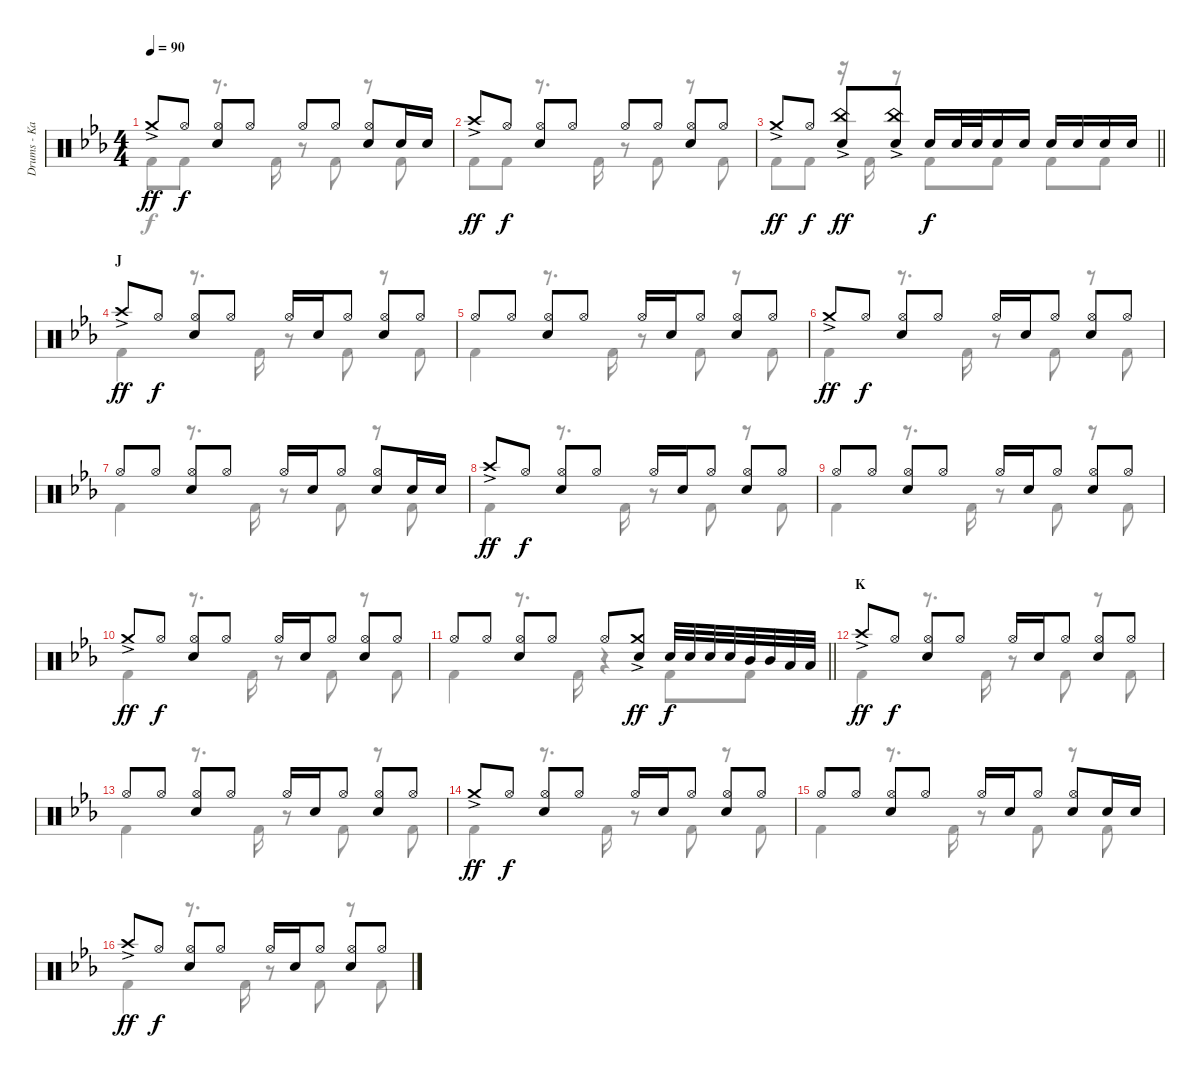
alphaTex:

\track ("Drums - Kai" "Drums - Ka") {instrument percussion}
\staff {score}
\articulation defaults
\voice
\ts (4 4)
\tempo 90
\clef neutral
\ks eb "Crash medium (hit)"{ac}.8{dy ff} "Hi-Hat (open)".8{dy f}
("Hi-Hat (open)" "Snare (hit) 2").8 "Hi-Hat (open)".8 "Hi-Hat (open)".8 "Hi-Hat (open)".8 ("Hi-Hat (open)" "Snare (hit) 2").8 "Snare (hit) 2".16 "Snare (hit) 2".16 |
"Crash high (hit)"{ac}.8{dy ff} "Hi-Hat (open)".8{dy f} ("Hi-Hat (open)" "Snare (hit) 2").8 "Hi-Hat (open)".8 "Hi-Hat (open)".8 "Hi-Hat (open)".8 ("Hi-Hat (open)" "Snare (hit) 2").8 "Hi-Hat (open)".8 |
\barLineRight lightlight "Crash medium (hit)"{ac}.8{dy ff} "Hi-Hat (open)".8{dy f}
("China (hit)"{ac} "Snare (hit) 2").8{dy ff} ("China (hit)"{ac} "Snare (hit) 2").8 "Snare (hit) 2".16{dy f} "Snare (hit) 2".32 "Snare (hit) 2".32 "Snare (hit) 2".16 "Snare (hit) 2".16 "Snare (hit) 2".16 "Snare (hit) 2".16 "Snare (hit) 2".16 "Snare (hit) 2".16 |
\section ("" "J")
"Crash high (hit)"{ac}.8{dy ff} "Hi-Hat (open)".8{dy f} ("Hi-Hat (open)" "Snare (hit) 2").8 "Hi-Hat (open)".8 "Hi-Hat (open)".16 "Snare (hit) 2".16 "Hi-Hat (open)".8 ("Hi-Hat (open)" "Snare (hit) 2").8 "Hi-Hat (open)".8 |
"Hi-Hat (open)".8 "Hi-Hat (open)".8 ("Hi-Hat (open)" "Snare (hit) 2").8 "Hi-Hat (open)".8 "Hi-Hat (open)".16 "Snare (hit) 2".16 "Hi-Hat (open)".8 ("Hi-Hat (open)" "Snare (hit) 2").8 "Hi-Hat (open)".8 |
"Crash medium (hit)"{ac}.8{dy ff} "Hi-Hat (open)".8{dy f} ("Hi-Hat (open)" "Snare (hit) 2").8 "Hi-Hat (open)".8 "Hi-Hat (open)".16 "Snare (hit) 2".16 "Hi-Hat (open)".8 ("Hi-Hat (open)" "Snare (hit) 2").8 "Hi-Hat (open)".8 |
"Hi-Hat (open)".8 "Hi-Hat (open)".8 ("Hi-Hat (open)" "Snare (hit) 2").8 "Hi-Hat (open)".8 "Hi-Hat (open)".16 "Snare (hit) 2".16 "Hi-Hat (open)".8 ("Hi-Hat (open)" "Snare (hit) 2").8 "Snare (hit) 2".16 "Snare (hit) 2".16 |
"Crash high (hit)"{ac}.8{dy ff} "Hi-Hat (open)".8{dy f} ("Hi-Hat (open)" "Snare (hit) 2").8 "Hi-Hat (open)".8 "Hi-Hat (open)".16 "Snare (hit) 2".16 "Hi-Hat (open)".8 ("Hi-Hat (open)" "Snare (hit) 2").8 "Hi-Hat (open)".8 |
"Hi-Hat (open)".8 "Hi-Hat (open)".8 ("Hi-Hat (open)" "Snare (hit) 2").8 "Hi-Hat (open)".8 "Hi-Hat (open)".16 "Snare (hit) 2".16 "Hi-Hat (open)".8 ("Hi-Hat (open)" "Snare (hit) 2").8 "Hi-Hat (open)".8 |
"Crash medium (hit)"{ac}.8{dy ff} "Hi-Hat (open)".8{dy f} ("Hi-Hat (open)" "Snare (hit) 2").8 "Hi-Hat (open)".8 "Hi-Hat (open)".16 "Snare (hit) 2".16 "Hi-Hat (open)".8 ("Hi-Hat (open)" "Snare (hit) 2").8 "Hi-Hat (open)".8 |
\barLineRight lightlight "Hi-Hat (open)".8 "Hi-Hat (open)".8
("Hi-Hat (open)" "Snare (hit) 2").8 "Hi-Hat (open)".8 "Hi-Hat (open)".8 ("Crash medium (hit)"{ac} "Snare (hit) 2").8{dy ff} "Snare (hit) 2".32{dy f} "Snare (hit) 2".32 "Snare (hit) 2".32 "Snare (hit) 2".32 "Mid Tom (hit)".32 "Mid Tom (hit)".32 "Low Tom (hit)".32 "Low Tom (hit)".32 |
\section ("" "K")
"Crash high (hit)"{ac}.8{dy ff} "Hi-Hat (open)".8{dy f} ("Hi-Hat (open)" "Snare (hit) 2").8 "Hi-Hat (open)".8 "Hi-Hat (open)".16 "Snare (hit) 2".16 "Hi-Hat (open)".8 ("Hi-Hat (open)" "Snare (hit) 2").8 "Hi-Hat (open)".8 |
"Hi-Hat (open)".8 "Hi-Hat (open)".8 ("Hi-Hat (open)" "Snare (hit) 2").8 "Hi-Hat (open)".8 "Hi-Hat (open)".16 "Snare (hit) 2".16 "Hi-Hat (open)".8 ("Hi-Hat (open)" "Snare (hit) 2").8 "Hi-Hat (open)".8 |
"Crash medium (hit)"{ac}.8{dy ff} "Hi-Hat (open)".8{dy f} ("Hi-Hat (open)" "Snare (hit) 2").8 "Hi-Hat (open)".8 "Hi-Hat (open)".16 "Snare (hit) 2".16 "Hi-Hat (open)".8 ("Hi-Hat (open)" "Snare (hit) 2").8 "Hi-Hat (open)".8 |
"Hi-Hat (open)".8 "Hi-Hat (open)".8 ("Hi-Hat (open)" "Snare (hit) 2").8 "Hi-Hat (open)".8 "Hi-Hat (open)".16 "Snare (hit) 2".16 "Hi-Hat (open)".8 ("Hi-Hat (open)" "Snare (hit) 2").8 "Snare (hit) 2".16 "Snare (hit) 2".16 |
"Crash high (hit)"{ac}.8{dy ff} "Hi-Hat (open)".8{dy f} ("Hi-Hat (open)" "Snare (hit) 2").8 "Hi-Hat (open)".8 "Hi-Hat (open)".16 "Snare (hit) 2".16 "Hi-Hat (open)".8 ("Hi-Hat (open)" "Snare (hit) 2").8 "Hi-Hat (open)".8
\voice
\clef neutral
\ottava regular
\simile none
\ks eb "Kick (hit) 2".8{dy f} "Kick (hit) 2".8
r.8{d} "Kick (hit) 2".16 r.8 "Kick (hit) 2".8 r.8 "Kick (hit) 2".8 |
"Kick (hit) 2".8 "Kick (hit) 2".8 r.8{d} "Kick (hit) 2".16 r.8 "Kick (hit) 2".8 r.8 "Kick (hit) 2".8 |
\barLineRight lightlight "Kick (hit) 2".8 "Kick (hit) 2".8
r.16 "Kick (hit) 2".16 r.8 "Kick (hit) 2".8 "Kick (hit) 2".8 "Kick (hit) 2".8 "Kick (hit) 2".8 |
"Kick (hit) 2".4 r.8{d} "Kick (hit) 2".16 r.8 "Kick (hit) 2".8 r.8 "Kick (hit) 2".8 |
"Kick (hit) 2".4 r.8{d} "Kick (hit) 2".16 r.8 "Kick (hit) 2".8 r.8 "Kick (hit) 2".8 |
"Kick (hit) 2".4 r.8{d} "Kick (hit) 2".16 r.8 "Kick (hit) 2".8 r.8 "Kick (hit) 2".8 |
"Kick (hit) 2".4 r.8{d} "Kick (hit) 2".16 r.8 "Kick (hit) 2".8 r.8 "Kick (hit) 2".8 |
"Kick (hit) 2".4 r.8{d} "Kick (hit) 2".16 r.8 "Kick (hit) 2".8 r.8 "Kick (hit) 2".8 |
"Kick (hit) 2".4 r.8{d} "Kick (hit) 2".16 r.8 "Kick (hit) 2".8 r.8 "Kick (hit) 2".8 |
"Kick (hit) 2".4 r.8{d} "Kick (hit) 2".16 r.8 "Kick (hit) 2".8 r.8 "Kick (hit) 2".8 |
\barLineRight lightlight "Kick (hit) 2".4
r.8{d} "Kick (hit) 2".16 r.4 "Kick (hit) 2".8 "Kick (hit) 2".8 |
"Kick (hit) 2".4 r.8{d} "Kick (hit) 2".16 r.8 "Kick (hit) 2".8 r.8 "Kick (hit) 2".8 |
"Kick (hit) 2".4 r.8{d} "Kick (hit) 2".16 r.8 "Kick (hit) 2".8 r.8 "Kick (hit) 2".8 |
"Kick (hit) 2".4 r.8{d} "Kick (hit) 2".16 r.8 "Kick (hit) 2".8 r.8 "Kick (hit) 2".8 |
"Kick (hit) 2".4 r.8{d} "Kick (hit) 2".16 r.8 "Kick (hit) 2".8 r.8 "Kick (hit) 2".8 |
"Kick (hit) 2".4 r.8{d} "Kick (hit) 2".16 r.8 "Kick (hit) 2".8 r.8 "Kick (hit) 2".8
